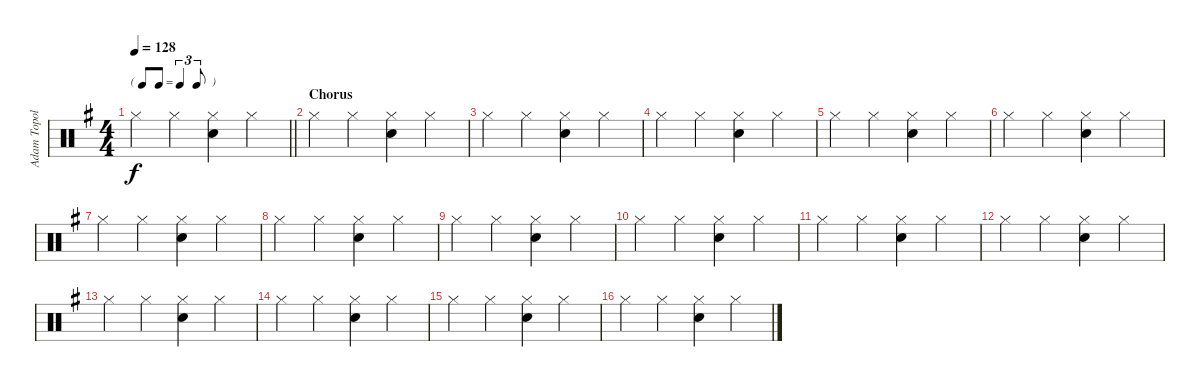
\track ("Adam Topol" "Adam Topol") {instrument percussion}
\staff {score}
\articulation defaults
\ts (4 4)
\tf triplet8th
\tempo 128
\clef neutral
\barLineRight lightlight
\ks g "Hi-Hat (closed)".4{dy f} "Hi-Hat (closed)".4
("Hi-Hat (closed)" "Snare (hit) 2").4 "Hi-Hat (closed)".4 |
\section ("" "Chorus")
"Hi-Hat (closed)".4 "Hi-Hat (closed)".4 ("Hi-Hat (closed)" "Snare (hit) 2").4 "Hi-Hat (closed)".4 |
"Hi-Hat (closed)".4 "Hi-Hat (closed)".4 ("Hi-Hat (closed)" "Snare (hit) 2").4 "Hi-Hat (closed)".4 |
"Hi-Hat (closed)".4 "Hi-Hat (closed)".4 ("Hi-Hat (closed)" "Snare (hit) 2").4 "Hi-Hat (closed)".4 |
"Hi-Hat (closed)".4 "Hi-Hat (closed)".4 ("Hi-Hat (closed)" "Snare (hit) 2").4 "Hi-Hat (closed)".4 |
"Hi-Hat (closed)".4 "Hi-Hat (closed)".4 ("Hi-Hat (closed)" "Snare (hit) 2").4 "Hi-Hat (closed)".4 |
"Hi-Hat (closed)".4 "Hi-Hat (closed)".4 ("Hi-Hat (closed)" "Snare (hit) 2").4 "Hi-Hat (closed)".4 |
"Hi-Hat (closed)".4 "Hi-Hat (closed)".4 ("Hi-Hat (closed)" "Snare (hit) 2").4 "Hi-Hat (closed)".4 |
"Hi-Hat (closed)".4 "Hi-Hat (closed)".4 ("Hi-Hat (closed)" "Snare (hit) 2").4 "Hi-Hat (closed)".4 |
"Hi-Hat (closed)".4 "Hi-Hat (closed)".4 ("Hi-Hat (closed)" "Snare (hit) 2").4 "Hi-Hat (closed)".4 |
"Hi-Hat (closed)".4 "Hi-Hat (closed)".4 ("Hi-Hat (closed)" "Snare (hit) 2").4 "Hi-Hat (closed)".4 |
"Hi-Hat (closed)".4 "Hi-Hat (closed)".4 ("Hi-Hat (closed)" "Snare (hit) 2").4 "Hi-Hat (closed)".4 |
"Hi-Hat (closed)".4 "Hi-Hat (closed)".4 ("Hi-Hat (closed)" "Snare (hit) 2").4 "Hi-Hat (closed)".4 |
"Hi-Hat (closed)".4 "Hi-Hat (closed)".4 ("Hi-Hat (closed)" "Snare (hit) 2").4 "Hi-Hat (closed)".4 |
"Hi-Hat (closed)".4 "Hi-Hat (closed)".4 ("Hi-Hat (closed)" "Snare (hit) 2").4 "Hi-Hat (closed)".4 |
"Hi-Hat (closed)".4 "Hi-Hat (closed)".4 ("Hi-Hat (closed)" "Snare (hit) 2").4 "Hi-Hat (closed)".4
